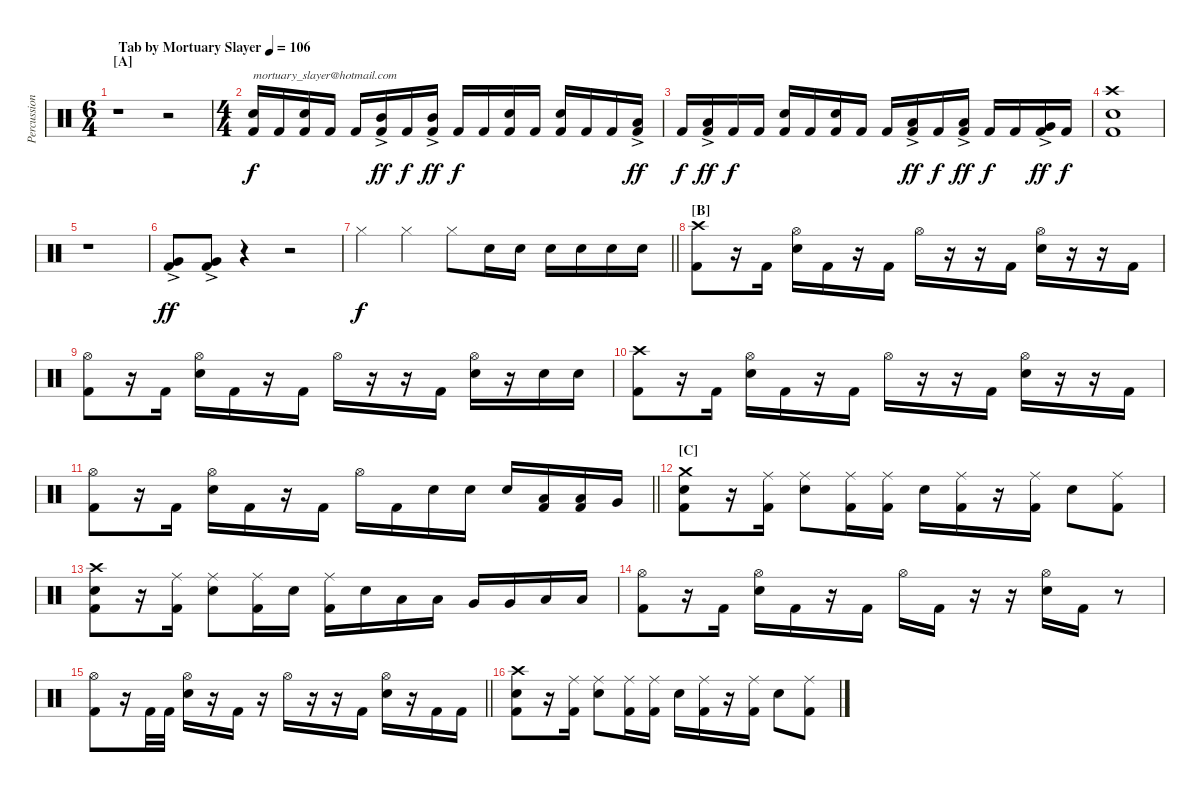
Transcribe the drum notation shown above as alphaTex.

\track ("Percussions" "Percussion") {instrument percussion}
\staff {score}
\articulation defaults
\ts (6 4)
\section ("" "[A]")
\tempo (106 "Tab by Mortuary Slayer")
\clef neutral
\ks c
r.1{dy f} r.2 |
\ts (4 4)
("Electric Snare (hit)" "Kick (hit) 2").16{txt "mortuary_slayer@hotmail.com"} "Kick (hit) 2".16 ("Electric Snare (hit)" "Kick (hit) 2").16 "Kick (hit) 2".16 "Kick (hit) 2".16 ("Mid Tom (hit)"{ac} "Kick (hit) 2").16{dy ff} "Kick (hit) 2".16{dy f} ("Mid Tom (hit)"{ac} "Kick (hit) 2").16{dy ff} "Kick (hit) 2".16{dy f} "Kick (hit) 2".16 ("Electric Snare (hit)" "Kick (hit) 2").16 "Kick (hit) 2".16 ("Electric Snare (hit)" "Kick (hit) 2").16 "Kick (hit) 2".16 "Kick (hit) 2".16 ("Low Tom (hit)"{ac} "Kick (hit) 2").16{dy ff} |
"Kick (hit) 2".16{dy f} ("Low Tom (hit)"{ac} "Kick (hit) 2").16{dy ff} "Kick (hit) 2".16{dy f} "Kick (hit) 2".16 ("Electric Snare (hit)" "Kick (hit) 2").16 "Kick (hit) 2".16 ("Electric Snare (hit)" "Kick (hit) 2").16 "Kick (hit) 2".16 "Kick (hit) 2".16 ("Low Tom (hit)"{ac} "Kick (hit) 2").16{dy ff} "Kick (hit) 2".16{dy f} ("Low Tom (hit)"{ac} "Kick (hit) 2").16{dy ff} "Kick (hit) 2".16{dy f} "Kick (hit) 2".16 ("Very Low Tom (hit)"{ac} "Kick (hit) 2").16{dy ff} "Kick (hit) 2".16{dy f} |
("Crash high (hit)" "Electric Snare (hit)" "Kick (hit) 2").1 |
r.1 |
("Very Low Tom (hit)"{ac} "Kick (hit) 2").8{dy ff} ("Very Low Tom (hit)"{ac} "Kick (hit) 2").8 r.4 r.2 |
\barLineRight lightlight "Hi-Hat (closed)".4{dy f} "Hi-Hat (closed)".4 "Hi-Hat (closed)".8 "Electric Snare (hit)".16 "Electric Snare (hit)".16 "Electric Snare (hit)".16 "Electric Snare (hit)".16 "Electric Snare (hit)".16 "Electric Snare (hit)".16
|
\section ("" "[B]")
("Crash high (hit)" "Kick (hit) 2").8 r.16 "Kick (hit) 2".16 ("Hi-Hat (open)" "Electric Snare (hit)").16 "Kick (hit) 2".16 r.16 "Kick (hit) 2".16 "Hi-Hat (open)".16 r.16 r.16 "Kick (hit) 2".16 ("Hi-Hat (open)" "Electric Snare (hit)").16 r.16 r.16 "Kick (hit) 2".16 |
("Hi-Hat (open)" "Kick (hit) 2").8 r.16 "Kick (hit) 2".16 ("Hi-Hat (open)" "Electric Snare (hit)").16 "Kick (hit) 2".16 r.16 "Kick (hit) 2".16 "Hi-Hat (open)".16 r.16 r.16 "Kick (hit) 2".16 ("Hi-Hat (open)" "Electric Snare (hit)").16 r.16 "Electric Snare (hit)".16 "Electric Snare (hit)".16 |
("Crash high (hit)" "Kick (hit) 2").8 r.16 "Kick (hit) 2".16 ("Hi-Hat (open)" "Electric Snare (hit)").16 "Kick (hit) 2".16 r.16 "Kick (hit) 2".16 "Hi-Hat (open)".16 r.16 r.16 "Kick (hit) 2".16 ("Hi-Hat (open)" "Electric Snare (hit)").16 r.16 r.16 "Kick (hit) 2".16 |
\barLineRight lightlight
("Hi-Hat (open)" "Kick (hit) 2").8 r.16 "Kick (hit) 2".16 ("Hi-Hat (open)" "Electric Snare (hit)").16 "Kick (hit) 2".16 r.16 "Kick (hit) 2".16 "Hi-Hat (open)".16 "Kick (hit) 2".16 "Electric Snare (hit)".16 "Electric Snare (hit)".16 "Electric Snare (hit)".16 ("Low Tom (hit)" "Kick (hit) 2").16 ("Low Tom (hit)" "Kick (hit) 2").16 "Very Low Tom (hit)".16 |
\section ("" "[C]")
("Crash medium (hit)" "Electric Snare (hit)" "Kick (hit) 2").8 r.16 ("Ride (middle)" "Kick (hit) 2").16 ("Ride (middle)" "Electric Snare (hit)").8 ("Ride (middle)" "Kick (hit) 2").16 ("Ride (middle)" "Kick (hit) 2").16 "Electric Snare (hit)".16 ("Ride (middle)" "Kick (hit) 2").16 r.16 ("Ride (middle)" "Kick (hit) 2").16 "Electric Snare (hit)".8 ("Ride (middle)" "Kick (hit) 2").8 |
("Crash high (hit)" "Electric Snare (hit)" "Kick (hit) 2").8 r.16 ("Ride (middle)" "Kick (hit) 2").16 ("Ride (middle)" "Electric Snare (hit)").8 ("Ride (middle)" "Kick (hit) 2").16 "Electric Snare (hit)".16 ("Ride (middle)" "Kick (hit) 2").16 "Electric Snare (hit)".16 "Low Tom (hit)".16 "Low Tom (hit)".16 "Very Low Tom (hit)".16 "Very Low Tom (hit)".16 "Low Floor Tom (hit)".16 "Low Floor Tom (hit)".16 |
("Hi-Hat (open)" "Kick (hit) 2").8 r.16 "Kick (hit) 2".16 ("Hi-Hat (open)" "Electric Snare (hit)").16 "Kick (hit) 2".16 r.16 "Kick (hit) 2".16 "Hi-Hat (open)".16 "Kick (hit) 2".16 r.16 r.16 ("Hi-Hat (open)" "Electric Snare (hit)").16 "Kick (hit) 2".16 r.8 |
\barLineRight lightlight
("Hi-Hat (open)" "Kick (hit) 2").8 r.16 "Kick (hit) 2".32 "Kick (hit) 2".32 ("Hi-Hat (open)" "Electric Snare (hit)").16 r.16 "Kick (hit) 2".16 r.16 "Hi-Hat (open)".16 r.16 r.16 "Kick (hit) 2".16 ("Hi-Hat (open)" "Electric Snare (hit)").16 r.16 "Kick (hit) 2".16 "Kick (hit) 2".16 |
\section ("" "")
("Crash high (hit)" "Electric Snare (hit)" "Kick (hit) 2").8 r.16 ("Ride (middle)" "Kick (hit) 2").16 ("Ride (middle)" "Electric Snare (hit)").8 ("Ride (middle)" "Kick (hit) 2").16 ("Ride (middle)" "Kick (hit) 2").16 "Electric Snare (hit)".16 ("Ride (middle)" "Kick (hit) 2").16 r.16 ("Ride (middle)" "Kick (hit) 2").16 "Electric Snare (hit)".8 ("Ride (middle)" "Kick (hit) 2").8
